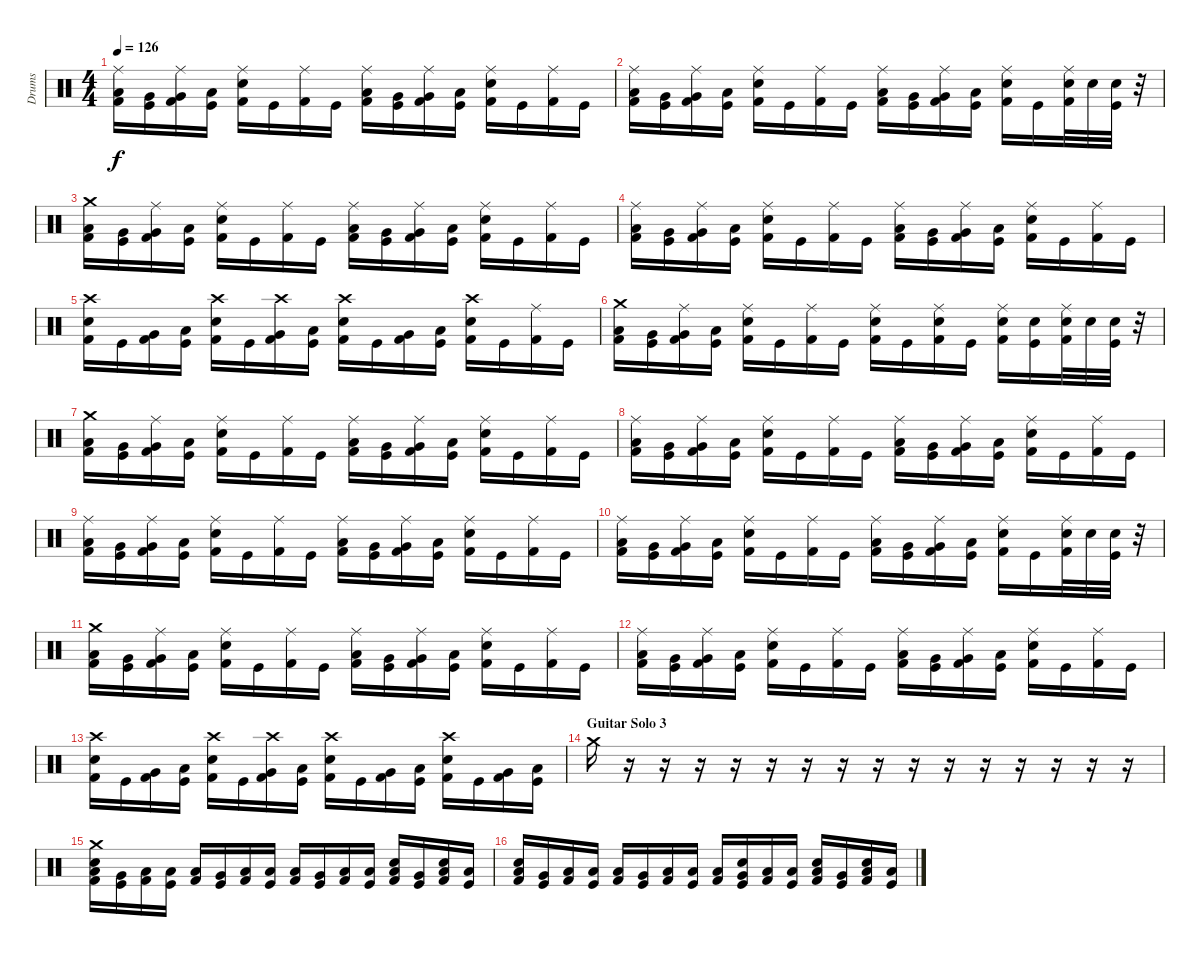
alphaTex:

\track ("Drums" "Drums") {instrument percussion}
\staff {score}
\articulation defaults
\ts (4 4)
\tempo 126
\clef neutral
\ks c
("Ride (middle)" "Low Tom (hit)" "Kick (hit) 2").16{dy f} ("Very Low Tom (hit)" "Kick (hit)").16 ("Ride (middle)" "Very Low Tom (hit)" "Kick (hit) 2").16 ("Low Floor Tom (hit)" "Kick (hit)").16 ("Ride (middle)" "Snare (hit) 2" "Kick (hit) 2").16 "Kick (hit)".16 ("Ride (middle)" "Kick (hit) 2").16 "Kick (hit)".16 ("Ride (middle)" "Low Tom (hit)" "Kick (hit) 2").16 ("Very Low Tom (hit)" "Kick (hit)").16 ("Ride (middle)" "Very Low Tom (hit)" "Kick (hit) 2").16 ("Low Floor Tom (hit)" "Kick (hit)").16 ("Ride (middle)" "Snare (hit) 2" "Kick (hit) 2").16 "Kick (hit)".16 ("Ride (middle)" "Kick (hit) 2").16 "Kick (hit)".16 |
("Ride (middle)" "Low Tom (hit)" "Kick (hit) 2").16 ("Very Low Tom (hit)" "Kick (hit)").16 ("Ride (middle)" "Very Low Tom (hit)" "Kick (hit) 2").16 ("Low Floor Tom (hit)" "Kick (hit)").16 ("Ride (middle)" "Snare (hit) 2" "Kick (hit) 2").16 "Kick (hit)".16 ("Ride (middle)" "Kick (hit) 2").16 "Kick (hit)".16 ("Ride (middle)" "Low Tom (hit)" "Kick (hit) 2").16 ("Very Low Tom (hit)" "Kick (hit)").16 ("Ride (middle)" "Very Low Tom (hit)" "Kick (hit) 2").16 ("Low Floor Tom (hit)" "Kick (hit)").16 ("Ride (middle)" "Snare (hit) 2" "Kick (hit) 2").16 "Kick (hit)".16 ("Ride (middle)" "Snare (hit) 2" "Kick (hit) 2").32 "Snare (hit) 2".32 ("Snare (hit) 2" "Kick (hit)").32 r.32 |
("Crash medium (hit)" "Low Tom (hit)" "Kick (hit) 2").16 ("Very Low Tom (hit)" "Kick (hit)").16 ("Ride (middle)" "Very Low Tom (hit)" "Kick (hit) 2").16 ("Low Floor Tom (hit)" "Kick (hit)").16 ("Ride (middle)" "Snare (hit) 2" "Kick (hit) 2").16 "Kick (hit)".16 ("Ride (middle)" "Kick (hit) 2").16 "Kick (hit)".16 ("Ride (middle)" "Low Tom (hit)" "Kick (hit) 2").16 ("Very Low Tom (hit)" "Kick (hit)").16 ("Ride (middle)" "Very Low Tom (hit)" "Kick (hit) 2").16 ("Low Floor Tom (hit)" "Kick (hit)").16 ("Ride (middle)" "Snare (hit) 2" "Kick (hit) 2").16 "Kick (hit)".16 ("Ride (middle)" "Kick (hit) 2").16 "Kick (hit)".16 |
("Ride (middle)" "Low Tom (hit)" "Kick (hit) 2").16 ("Very Low Tom (hit)" "Kick (hit)").16 ("Ride (middle)" "Very Low Tom (hit)" "Kick (hit) 2").16 ("Low Floor Tom (hit)" "Kick (hit)").16 ("Ride (middle)" "Snare (hit) 2" "Kick (hit) 2").16 "Kick (hit)".16 ("Ride (middle)" "Kick (hit) 2").16 "Kick (hit)".16 ("Ride (middle)" "Low Tom (hit)" "Kick (hit) 2").16 ("Very Low Tom (hit)" "Kick (hit)").16 ("Ride (middle)" "Very Low Tom (hit)" "Kick (hit) 2").16 ("Low Floor Tom (hit)" "Kick (hit)").16 ("Ride (middle)" "Snare (hit) 2" "Kick (hit) 2").16 "Kick (hit)".16 ("Ride (middle)" "Kick (hit) 2").16 "Kick (hit)".16 |
("Crash high (hit)" "Snare (hit) 2" "Kick (hit) 2").16 "Kick (hit)".16 ("Very Low Tom (hit)" "Kick (hit) 2").16 ("Low Floor Tom (hit)" "Kick (hit)").16 ("Crash high (hit)" "Snare (hit) 2" "Kick (hit) 2").16 "Kick (hit)".16 ("Crash high (hit)" "Very Low Tom (hit)" "Kick (hit) 2").16 ("Low Floor Tom (hit)" "Kick (hit)").16 ("Crash high (hit)" "Snare (hit) 2" "Kick (hit) 2").16 "Kick (hit)".16 ("Very Low Tom (hit)" "Kick (hit) 2").16 ("Low Floor Tom (hit)" "Kick (hit)").16 ("Crash high (hit)" "Snare (hit) 2" "Kick (hit) 2").16 "Kick (hit)".16 ("Ride (middle)" "Kick (hit) 2").16 "Kick (hit)".16 |
("Crash medium (hit)" "Low Tom (hit)" "Kick (hit) 2").16 ("Very Low Tom (hit)" "Kick (hit)").16 ("Ride (middle)" "Very Low Tom (hit)" "Kick (hit) 2").16 ("Low Floor Tom (hit)" "Kick (hit)").16 ("Ride (middle)" "Snare (hit) 2" "Kick (hit) 2").16 "Kick (hit)".16 ("Ride (middle)" "Kick (hit) 2").16 "Kick (hit)".16 ("Ride (middle)" "Snare (hit) 2" "Kick (hit) 2").16 "Kick (hit)".16 ("Ride (middle)" "Snare (hit) 2" "Kick (hit) 2").16 "Kick (hit)".16 ("Ride (middle)" "Snare (hit) 2" "Kick (hit) 2").16 ("Snare (hit) 2" "Kick (hit)").16 ("Ride (middle)" "Snare (hit) 2" "Kick (hit) 2").32 "Snare (hit) 2".32 ("Snare (hit) 2" "Kick (hit)").32 r.32 |
("Crash medium (hit)" "Low Tom (hit)" "Kick (hit) 2").16 ("Very Low Tom (hit)" "Kick (hit)").16 ("Ride (middle)" "Very Low Tom (hit)" "Kick (hit) 2").16 ("Low Floor Tom (hit)" "Kick (hit)").16 ("Ride (middle)" "Snare (hit) 2" "Kick (hit) 2").16 "Kick (hit)".16 ("Ride (middle)" "Kick (hit) 2").16 "Kick (hit)".16 ("Ride (middle)" "Low Tom (hit)" "Kick (hit) 2").16 ("Very Low Tom (hit)" "Kick (hit)").16 ("Ride (middle)" "Very Low Tom (hit)" "Kick (hit) 2").16 ("Low Floor Tom (hit)" "Kick (hit)").16 ("Ride (middle)" "Snare (hit) 2" "Kick (hit) 2").16 "Kick (hit)".16 ("Ride (middle)" "Kick (hit) 2").16 "Kick (hit)".16 |
("Ride (middle)" "Low Tom (hit)" "Kick (hit) 2").16 ("Very Low Tom (hit)" "Kick (hit)").16 ("Ride (middle)" "Very Low Tom (hit)" "Kick (hit) 2").16 ("Low Floor Tom (hit)" "Kick (hit)").16 ("Ride (middle)" "Snare (hit) 2" "Kick (hit) 2").16 "Kick (hit)".16 ("Ride (middle)" "Kick (hit) 2").16 "Kick (hit)".16 ("Ride (middle)" "Low Tom (hit)" "Kick (hit) 2").16 ("Very Low Tom (hit)" "Kick (hit)").16 ("Ride (middle)" "Very Low Tom (hit)" "Kick (hit) 2").16 ("Low Floor Tom (hit)" "Kick (hit)").16 ("Ride (middle)" "Snare (hit) 2" "Kick (hit) 2").16 "Kick (hit)".16 ("Ride (middle)" "Kick (hit) 2").16 "Kick (hit)".16 |
("Ride (middle)" "Low Tom (hit)" "Kick (hit) 2").16 ("Very Low Tom (hit)" "Kick (hit)").16 ("Ride (middle)" "Very Low Tom (hit)" "Kick (hit) 2").16 ("Low Floor Tom (hit)" "Kick (hit)").16 ("Ride (middle)" "Snare (hit) 2" "Kick (hit) 2").16 "Kick (hit)".16 ("Ride (middle)" "Kick (hit) 2").16 "Kick (hit)".16 ("Ride (middle)" "Low Tom (hit)" "Kick (hit) 2").16 ("Very Low Tom (hit)" "Kick (hit)").16 ("Ride (middle)" "Very Low Tom (hit)" "Kick (hit) 2").16 ("Low Floor Tom (hit)" "Kick (hit)").16 ("Ride (middle)" "Snare (hit) 2" "Kick (hit) 2").16 "Kick (hit)".16 ("Ride (middle)" "Kick (hit) 2").16 "Kick (hit)".16 |
("Ride (middle)" "Low Tom (hit)" "Kick (hit) 2").16 ("Very Low Tom (hit)" "Kick (hit)").16 ("Ride (middle)" "Very Low Tom (hit)" "Kick (hit) 2").16 ("Low Floor Tom (hit)" "Kick (hit)").16 ("Ride (middle)" "Snare (hit) 2" "Kick (hit) 2").16 "Kick (hit)".16 ("Ride (middle)" "Kick (hit) 2").16 "Kick (hit)".16 ("Ride (middle)" "Low Tom (hit)" "Kick (hit) 2").16 ("Very Low Tom (hit)" "Kick (hit)").16 ("Ride (middle)" "Very Low Tom (hit)" "Kick (hit) 2").16 ("Low Floor Tom (hit)" "Kick (hit)").16 ("Ride (middle)" "Snare (hit) 2" "Kick (hit) 2").16 "Kick (hit)".16 ("Ride (middle)" "Snare (hit) 2" "Kick (hit) 2").32 "Snare (hit) 2".32 ("Snare (hit) 2" "Kick (hit)").32 r.32 |
("Crash medium (hit)" "Low Tom (hit)" "Kick (hit) 2").16 ("Very Low Tom (hit)" "Kick (hit)").16 ("Ride (middle)" "Very Low Tom (hit)" "Kick (hit) 2").16 ("Low Floor Tom (hit)" "Kick (hit)").16 ("Ride (middle)" "Snare (hit) 2" "Kick (hit) 2").16 "Kick (hit)".16 ("Ride (middle)" "Kick (hit) 2").16 "Kick (hit)".16 ("Ride (middle)" "Low Tom (hit)" "Kick (hit) 2").16 ("Very Low Tom (hit)" "Kick (hit)").16 ("Ride (middle)" "Very Low Tom (hit)" "Kick (hit) 2").16 ("Low Floor Tom (hit)" "Kick (hit)").16 ("Ride (middle)" "Snare (hit) 2" "Kick (hit) 2").16 "Kick (hit)".16 ("Ride (middle)" "Kick (hit) 2").16 "Kick (hit)".16 |
("Ride (middle)" "Low Tom (hit)" "Kick (hit) 2").16 ("Very Low Tom (hit)" "Kick (hit)").16 ("Ride (middle)" "Very Low Tom (hit)" "Kick (hit) 2").16 ("Low Floor Tom (hit)" "Kick (hit)").16 ("Ride (middle)" "Snare (hit) 2" "Kick (hit) 2").16 "Kick (hit)".16 ("Ride (middle)" "Kick (hit) 2").16 "Kick (hit)".16 ("Ride (middle)" "Low Tom (hit)" "Kick (hit) 2").16 ("Very Low Tom (hit)" "Kick (hit)").16 ("Ride (middle)" "Very Low Tom (hit)" "Kick (hit) 2").16 ("Low Floor Tom (hit)" "Kick (hit)").16 ("Ride (middle)" "Snare (hit) 2" "Kick (hit) 2").16 "Kick (hit)".16 ("Ride (middle)" "Kick (hit) 2").16 "Kick (hit)".16 |
("Crash high (hit)" "Snare (hit) 2" "Kick (hit) 2").16 "Kick (hit)".16 ("Very Low Tom (hit)" "Kick (hit) 2").16 ("Low Floor Tom (hit)" "Kick (hit)").16 ("Crash high (hit)" "Snare (hit) 2" "Kick (hit) 2").16 "Kick (hit)".16 ("Crash high (hit)" "Very Low Tom (hit)" "Kick (hit) 2").16 ("Low Floor Tom (hit)" "Kick (hit)").16 ("Crash high (hit)" "Snare (hit) 2" "Kick (hit) 2").16 "Kick (hit)".16 ("Very Low Tom (hit)" "Kick (hit) 2").16 ("Low Floor Tom (hit)" "Kick (hit)").16 ("Crash high (hit)" "Snare (hit) 2" "Kick (hit) 2").16 "Kick (hit)".16 ("Very Low Tom (hit)" "Kick (hit) 2").16 ("Low Floor Tom (hit)" "Kick (hit)").16 |
\section ("" "Guitar Solo 3")
"Crash medium (hit)".16 r.16 r.16 r.16 r.16 r.16 r.16 r.16 r.16 r.16 r.16 r.16 r.16 r.16 r.16 r.16 |
("Crash medium (hit)" "Low Tom (hit)" "Snare (hit) 2" "Kick (hit) 2").16 ("Very Low Tom (hit)" "Kick (hit)").16 ("Low Floor Tom (hit)" "Kick (hit) 2").16 ("Low Floor Tom (hit)" "Kick (hit)").16 ("Low Tom (hit)" "Kick (hit) 2").16 ("Very Low Tom (hit)" "Kick (hit)").16 ("Low Floor Tom (hit)" "Kick (hit) 2").16 ("Low Floor Tom (hit)" "Kick (hit)").16 ("Low Tom (hit)" "Kick (hit) 2").16 ("Very Low Tom (hit)" "Kick (hit)").16 ("Low Floor Tom (hit)" "Kick (hit) 2").16 ("Low Floor Tom (hit)" "Kick (hit)").16 ("Low Tom (hit)" "Snare (hit) 2" "Kick (hit) 2").16 ("Very Low Tom (hit)" "Kick (hit)").16 ("Low Floor Tom (hit)" "Snare (hit) 2" "Kick (hit) 2").16 ("Low Floor Tom (hit)" "Kick (hit)").16 |
("Low Tom (hit)" "Snare (hit) 2" "Kick (hit) 2").16 ("Very Low Tom (hit)" "Kick (hit)").16 ("Low Floor Tom (hit)" "Kick (hit) 2").16 ("Low Floor Tom (hit)" "Kick (hit)").16 ("Low Tom (hit)" "Kick (hit) 2").16 ("Very Low Tom (hit)" "Kick (hit)").16 ("Low Floor Tom (hit)" "Kick (hit) 2").16 ("Low Floor Tom (hit)" "Kick (hit)").16 ("Low Tom (hit)" "Kick (hit) 2").16 ("Very Low Tom (hit)" "Snare (hit) 2" "Kick (hit)").16 ("Low Floor Tom (hit)" "Kick (hit) 2").16 ("Low Floor Tom (hit)" "Kick (hit)").16 ("Low Tom (hit)" "Snare (hit) 2" "Kick (hit) 2").16 ("Very Low Tom (hit)" "Kick (hit)").16 ("Low Floor Tom (hit)" "Snare (hit) 2" "Kick (hit) 2").16 ("Low Floor Tom (hit)" "Kick (hit)").16
